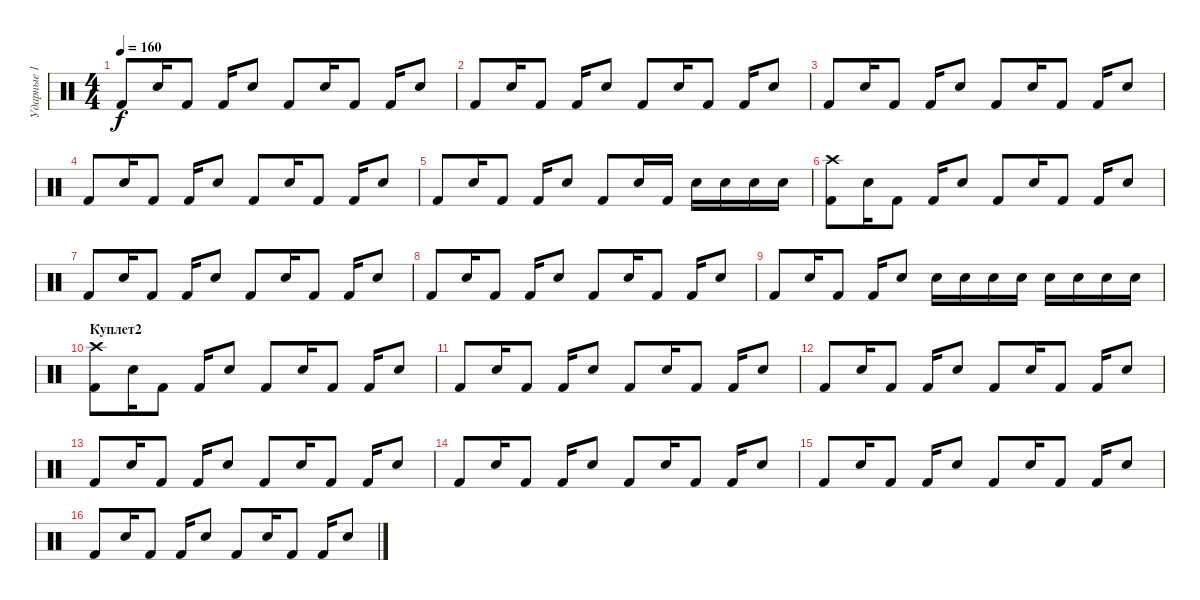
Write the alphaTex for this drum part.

\track ("Ударные 1" "Ударные 1") {instrument percussion}
\staff {score}
\articulation defaults
\ts (4 4)
\tempo 160
\clef neutral
\ks c "Kick (hit) 2".8{dy f} "Snare (hit) 2".16 "Kick (hit) 2".8 "Kick (hit) 2".16 "Snare (hit) 2".8 "Kick (hit) 2".8 "Snare (hit) 2".16 "Kick (hit) 2".8 "Kick (hit) 2".16 "Snare (hit) 2".8
|
"Kick (hit) 2".8 "Snare (hit) 2".16 "Kick (hit) 2".8 "Kick (hit) 2".16 "Snare (hit) 2".8 "Kick (hit) 2".8 "Snare (hit) 2".16 "Kick (hit) 2".8 "Kick (hit) 2".16 "Snare (hit) 2".8 |
"Kick (hit) 2".8 "Snare (hit) 2".16 "Kick (hit) 2".8 "Kick (hit) 2".16 "Snare (hit) 2".8 "Kick (hit) 2".8 "Snare (hit) 2".16 "Kick (hit) 2".8 "Kick (hit) 2".16 "Snare (hit) 2".8 |
"Kick (hit) 2".8 "Snare (hit) 2".16 "Kick (hit) 2".8 "Kick (hit) 2".16 "Snare (hit) 2".8 "Kick (hit) 2".8 "Snare (hit) 2".16 "Kick (hit) 2".8 "Kick (hit) 2".16 "Snare (hit) 2".8 |
"Kick (hit) 2".8 "Snare (hit) 2".16 "Kick (hit) 2".8 "Kick (hit) 2".16 "Snare (hit) 2".8 "Kick (hit) 2".8 "Snare (hit) 2".16 "Kick (hit) 2".16 "Snare (hit) 2".16 "Snare (hit) 2".16 "Snare (hit) 2".16 "Snare (hit) 2".16 |
("Kick (hit) 2" "Crash high (hit)").8 "Snare (hit) 2".16 "Kick (hit) 2".8 "Kick (hit) 2".16 "Snare (hit) 2".8 "Kick (hit) 2".8 "Snare (hit) 2".16 "Kick (hit) 2".8 "Kick (hit) 2".16 "Snare (hit) 2".8 |
"Kick (hit) 2".8 "Snare (hit) 2".16 "Kick (hit) 2".8 "Kick (hit) 2".16 "Snare (hit) 2".8 "Kick (hit) 2".8 "Snare (hit) 2".16 "Kick (hit) 2".8 "Kick (hit) 2".16 "Snare (hit) 2".8 |
"Kick (hit) 2".8 "Snare (hit) 2".16 "Kick (hit) 2".8 "Kick (hit) 2".16 "Snare (hit) 2".8 "Kick (hit) 2".8 "Snare (hit) 2".16 "Kick (hit) 2".8 "Kick (hit) 2".16 "Snare (hit) 2".8 |
"Kick (hit) 2".8 "Snare (hit) 2".16 "Kick (hit) 2".8 "Kick (hit) 2".16 "Snare (hit) 2".8 "Snare (hit) 2".16 "Snare (hit) 2".16 "Snare (hit) 2".16 "Snare (hit) 2".16 "Snare (hit) 2".16 "Snare (hit) 2".16 "Snare (hit) 2".16 "Snare (hit) 2".16 |
\section ("" "Куплет2")
("Kick (hit) 2" "Crash high (hit)").8 "Snare (hit) 2".16 "Kick (hit) 2".8 "Kick (hit) 2".16 "Snare (hit) 2".8 "Kick (hit) 2".8 "Snare (hit) 2".16 "Kick (hit) 2".8 "Kick (hit) 2".16 "Snare (hit) 2".8 |
"Kick (hit) 2".8 "Snare (hit) 2".16 "Kick (hit) 2".8 "Kick (hit) 2".16 "Snare (hit) 2".8 "Kick (hit) 2".8 "Snare (hit) 2".16 "Kick (hit) 2".8 "Kick (hit) 2".16 "Snare (hit) 2".8 |
"Kick (hit) 2".8 "Snare (hit) 2".16 "Kick (hit) 2".8 "Kick (hit) 2".16 "Snare (hit) 2".8 "Kick (hit) 2".8 "Snare (hit) 2".16 "Kick (hit) 2".8 "Kick (hit) 2".16 "Snare (hit) 2".8 |
"Kick (hit) 2".8 "Snare (hit) 2".16 "Kick (hit) 2".8 "Kick (hit) 2".16 "Snare (hit) 2".8 "Kick (hit) 2".8 "Snare (hit) 2".16 "Kick (hit) 2".8 "Kick (hit) 2".16 "Snare (hit) 2".8 |
"Kick (hit) 2".8 "Snare (hit) 2".16 "Kick (hit) 2".8 "Kick (hit) 2".16 "Snare (hit) 2".8 "Kick (hit) 2".8 "Snare (hit) 2".16 "Kick (hit) 2".8 "Kick (hit) 2".16 "Snare (hit) 2".8 |
"Kick (hit) 2".8 "Snare (hit) 2".16 "Kick (hit) 2".8 "Kick (hit) 2".16 "Snare (hit) 2".8 "Kick (hit) 2".8 "Snare (hit) 2".16 "Kick (hit) 2".8 "Kick (hit) 2".16 "Snare (hit) 2".8 |
"Kick (hit) 2".8 "Snare (hit) 2".16 "Kick (hit) 2".8 "Kick (hit) 2".16 "Snare (hit) 2".8 "Kick (hit) 2".8 "Snare (hit) 2".16 "Kick (hit) 2".8 "Kick (hit) 2".16 "Snare (hit) 2".8
